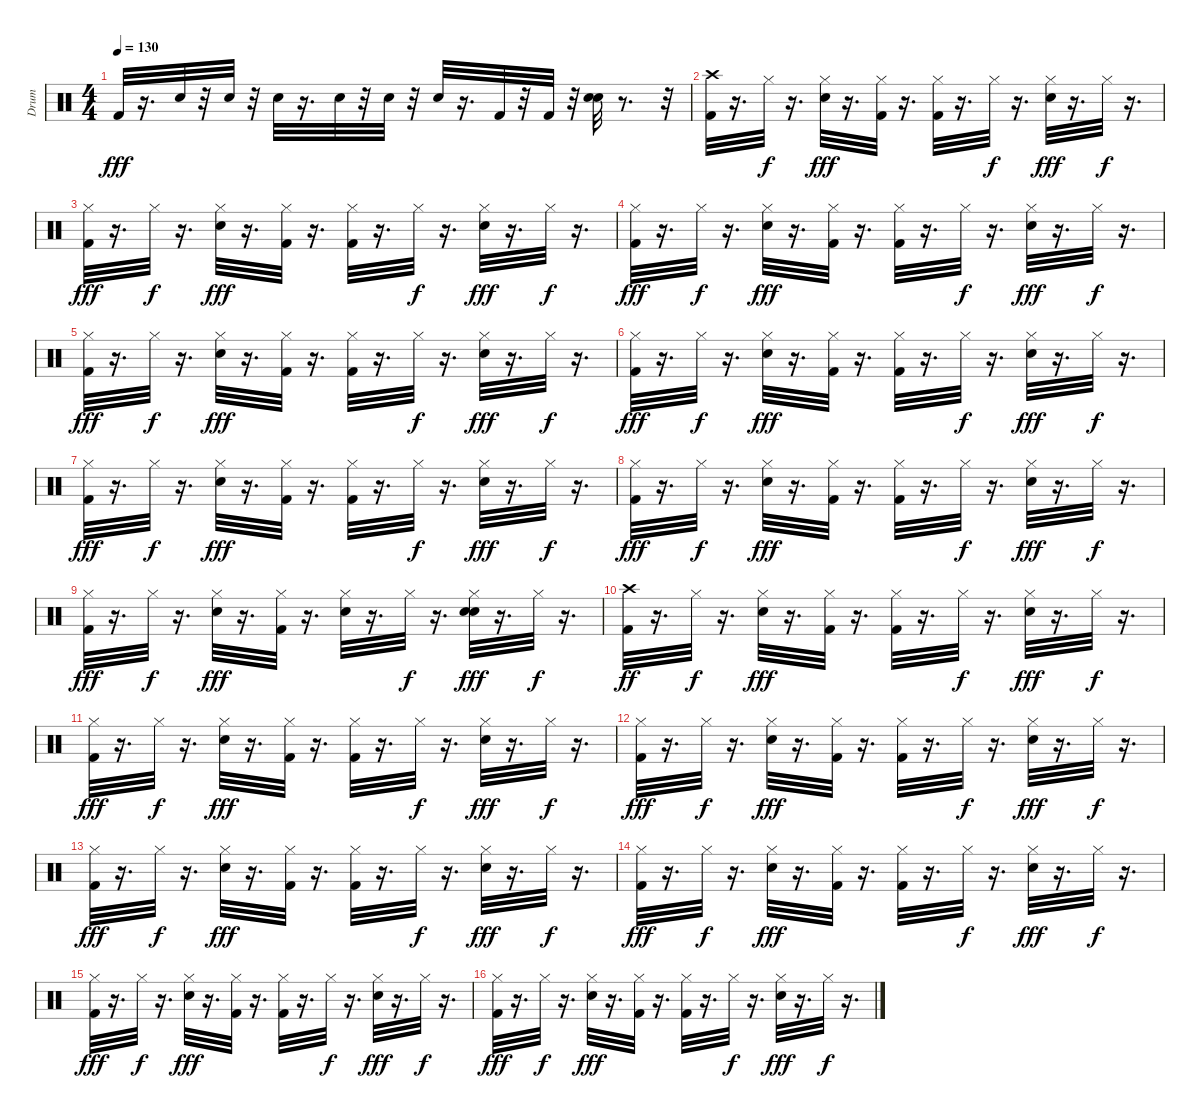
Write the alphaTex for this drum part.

\track ("Drum" "Drum") {instrument percussion}
\staff {score}
\articulation defaults
\ts (4 4)
\tempo 130
\clef neutral
\ks c "Kick (hit) 2".32{dy fff}
r.16{d} "Snare (hit) 2".32 r.32 "Electric Snare (hit)".32 r.32 "Snare (hit) 2".32 r.16{d} "Snare (hit) 2".32 r.32 "Electric Snare (hit)".32 r.32 "Snare (hit) 2".32 r.16{d} "Kick (hit) 2".32 r.32 "Kick (hit) 2".32 r.32 ("Snare (hit) 2" "Snare (hit) 2").32 r.8{d} r.32 |
("Crash high (hit)" "Kick (hit) 2").32 r.16{d} "Hi-Hat (closed)".32{dy f} r.16{d} ("Hi-Hat (closed)" "Electric Snare (hit)").32{dy fff} r.16{d} ("Kick (hit) 2" "Hi-Hat (closed)").32 r.16{d} ("Kick (hit) 2" "Hi-Hat (closed)").32 r.16{d} "Hi-Hat (closed)".32{dy f} r.16{d} ("Hi-Hat (closed)" "Electric Snare (hit)").32{dy fff} r.16{d} "Hi-Hat (closed)".32{dy f} r.16{d} |
("Kick (hit) 2" "Hi-Hat (closed)").32{dy fff} r.16{d} "Hi-Hat (closed)".32{dy f} r.16{d} ("Hi-Hat (closed)" "Electric Snare (hit)").32{dy fff} r.16{d} ("Kick (hit) 2" "Hi-Hat (closed)").32 r.16{d} ("Kick (hit) 2" "Hi-Hat (closed)").32 r.16{d} "Hi-Hat (closed)".32{dy f} r.16{d} ("Hi-Hat (closed)" "Electric Snare (hit)").32{dy fff} r.16{d} "Hi-Hat (closed)".32{dy f} r.16{d} |
("Kick (hit) 2" "Hi-Hat (closed)").32{dy fff} r.16{d} "Hi-Hat (closed)".32{dy f} r.16{d} ("Hi-Hat (closed)" "Electric Snare (hit)").32{dy fff} r.16{d} ("Kick (hit) 2" "Hi-Hat (closed)").32 r.16{d} ("Kick (hit) 2" "Hi-Hat (closed)").32 r.16{d} "Hi-Hat (closed)".32{dy f} r.16{d} ("Hi-Hat (closed)" "Electric Snare (hit)").32{dy fff} r.16{d} "Hi-Hat (closed)".32{dy f} r.16{d} |
("Kick (hit) 2" "Hi-Hat (closed)").32{dy fff} r.16{d} "Hi-Hat (closed)".32{dy f} r.16{d} ("Hi-Hat (closed)" "Electric Snare (hit)").32{dy fff} r.16{d} ("Kick (hit) 2" "Hi-Hat (closed)").32 r.16{d} ("Kick (hit) 2" "Hi-Hat (closed)").32 r.16{d} "Hi-Hat (closed)".32{dy f} r.16{d} ("Hi-Hat (closed)" "Electric Snare (hit)").32{dy fff} r.16{d} "Hi-Hat (closed)".32{dy f} r.16{d} |
("Kick (hit) 2" "Hi-Hat (closed)").32{dy fff} r.16{d} "Hi-Hat (closed)".32{dy f} r.16{d} ("Hi-Hat (closed)" "Electric Snare (hit)").32{dy fff} r.16{d} ("Kick (hit) 2" "Hi-Hat (closed)").32 r.16{d} ("Kick (hit) 2" "Hi-Hat (closed)").32 r.16{d} "Hi-Hat (closed)".32{dy f} r.16{d} ("Hi-Hat (closed)" "Electric Snare (hit)").32{dy fff} r.16{d} "Hi-Hat (closed)".32{dy f} r.16{d} |
("Kick (hit) 2" "Hi-Hat (closed)").32{dy fff} r.16{d} "Hi-Hat (closed)".32{dy f} r.16{d} ("Hi-Hat (closed)" "Electric Snare (hit)").32{dy fff} r.16{d} ("Kick (hit) 2" "Hi-Hat (closed)").32 r.16{d} ("Kick (hit) 2" "Hi-Hat (closed)").32 r.16{d} "Hi-Hat (closed)".32{dy f} r.16{d} ("Hi-Hat (closed)" "Electric Snare (hit)").32{dy fff} r.16{d} "Hi-Hat (closed)".32{dy f} r.16{d} |
("Kick (hit) 2" "Hi-Hat (closed)").32{dy fff} r.16{d} "Hi-Hat (closed)".32{dy f} r.16{d} ("Hi-Hat (closed)" "Electric Snare (hit)").32{dy fff} r.16{d} ("Kick (hit) 2" "Hi-Hat (closed)").32 r.16{d} ("Kick (hit) 2" "Hi-Hat (closed)").32 r.16{d} "Hi-Hat (closed)".32{dy f} r.16{d} ("Hi-Hat (closed)" "Electric Snare (hit)").32{dy fff} r.16{d} "Hi-Hat (closed)".32{dy f} r.16{d} |
("Kick (hit) 2" "Hi-Hat (closed)").32{dy fff} r.16{d} "Hi-Hat (closed)".32{dy f} r.16{d} ("Hi-Hat (closed)" "Electric Snare (hit)").32{dy fff} r.16{d} ("Kick (hit) 2" "Hi-Hat (closed)").32 r.16{d} ("Electric Snare (hit)" "Hi-Hat (closed)").32 r.16{d} "Hi-Hat (closed)".32{dy f} r.16{d} ("Electric Snare (hit)" "Hi-Hat (closed)" "Electric Snare (hit)").32{dy fff} r.16{d} "Hi-Hat (closed)".32{dy f} r.16{d} |
("Kick (hit) 2" "Crash high (hit)").32{dy ff} r.16{d} "Hi-Hat (closed)".32{dy f} r.16{d} ("Hi-Hat (closed)" "Electric Snare (hit)").32{dy fff} r.16{d} ("Kick (hit) 2" "Hi-Hat (closed)").32 r.16{d} ("Kick (hit) 2" "Hi-Hat (closed)").32 r.16{d} "Hi-Hat (closed)".32{dy f} r.16{d} ("Hi-Hat (closed)" "Electric Snare (hit)").32{dy fff} r.16{d} "Hi-Hat (closed)".32{dy f} r.16{d} |
("Kick (hit) 2" "Hi-Hat (closed)").32{dy fff} r.16{d} "Hi-Hat (closed)".32{dy f} r.16{d} ("Hi-Hat (closed)" "Electric Snare (hit)").32{dy fff} r.16{d} ("Kick (hit) 2" "Hi-Hat (closed)").32 r.16{d} ("Kick (hit) 2" "Hi-Hat (closed)").32 r.16{d} "Hi-Hat (closed)".32{dy f} r.16{d} ("Hi-Hat (closed)" "Electric Snare (hit)").32{dy fff} r.16{d} "Hi-Hat (closed)".32{dy f} r.16{d} |
("Kick (hit) 2" "Hi-Hat (closed)").32{dy fff} r.16{d} "Hi-Hat (closed)".32{dy f} r.16{d} ("Hi-Hat (closed)" "Electric Snare (hit)").32{dy fff} r.16{d} ("Kick (hit) 2" "Hi-Hat (closed)").32 r.16{d} ("Kick (hit) 2" "Hi-Hat (closed)").32 r.16{d} "Hi-Hat (closed)".32{dy f} r.16{d} ("Hi-Hat (closed)" "Electric Snare (hit)").32{dy fff} r.16{d} "Hi-Hat (closed)".32{dy f} r.16{d} |
("Kick (hit) 2" "Hi-Hat (closed)").32{dy fff} r.16{d} "Hi-Hat (closed)".32{dy f} r.16{d} ("Hi-Hat (closed)" "Electric Snare (hit)").32{dy fff} r.16{d} ("Kick (hit) 2" "Hi-Hat (closed)").32 r.16{d} ("Kick (hit) 2" "Hi-Hat (closed)").32 r.16{d} "Hi-Hat (closed)".32{dy f} r.16{d} ("Hi-Hat (closed)" "Electric Snare (hit)").32{dy fff} r.16{d} "Hi-Hat (closed)".32{dy f} r.16{d} |
("Kick (hit) 2" "Hi-Hat (closed)").32{dy fff} r.16{d} "Hi-Hat (closed)".32{dy f} r.16{d} ("Hi-Hat (closed)" "Electric Snare (hit)").32{dy fff} r.16{d} ("Kick (hit) 2" "Hi-Hat (closed)").32 r.16{d} ("Kick (hit) 2" "Hi-Hat (closed)").32 r.16{d} "Hi-Hat (closed)".32{dy f} r.16{d} ("Hi-Hat (closed)" "Electric Snare (hit)").32{dy fff} r.16{d} "Hi-Hat (closed)".32{dy f} r.16{d} |
("Kick (hit) 2" "Hi-Hat (closed)").32{dy fff} r.16{d} "Hi-Hat (closed)".32{dy f} r.16{d} ("Hi-Hat (closed)" "Electric Snare (hit)").32{dy fff} r.16{d} ("Kick (hit) 2" "Hi-Hat (closed)").32 r.16{d} ("Kick (hit) 2" "Hi-Hat (closed)").32 r.16{d} "Hi-Hat (closed)".32{dy f} r.16{d} ("Hi-Hat (closed)" "Electric Snare (hit)").32{dy fff} r.16{d} "Hi-Hat (closed)".32{dy f} r.16{d} |
("Kick (hit) 2" "Hi-Hat (closed)").32{dy fff} r.16{d} "Hi-Hat (closed)".32{dy f} r.16{d} ("Hi-Hat (closed)" "Electric Snare (hit)").32{dy fff} r.16{d} ("Kick (hit) 2" "Hi-Hat (closed)").32 r.16{d} ("Kick (hit) 2" "Hi-Hat (closed)").32 r.16{d} "Hi-Hat (closed)".32{dy f} r.16{d} ("Hi-Hat (closed)" "Electric Snare (hit)").32{dy fff} r.16{d} "Hi-Hat (closed)".32{dy f} r.16{d}
